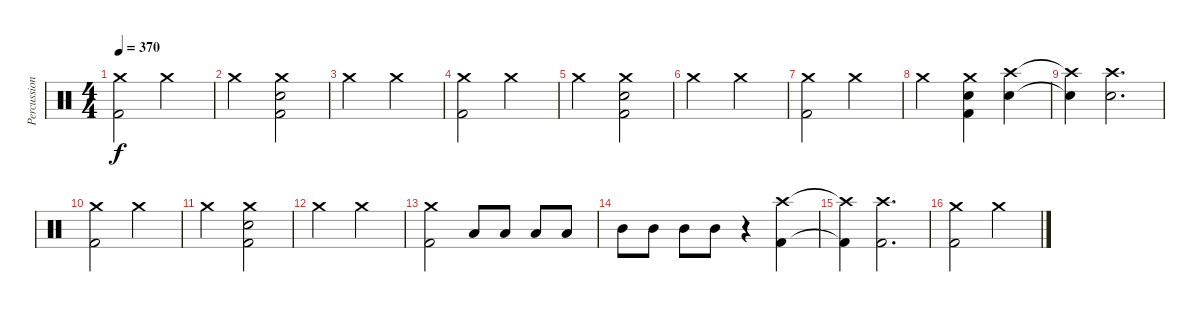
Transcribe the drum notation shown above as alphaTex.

\track ("Percussions" "Percussion") {instrument percussion}
\staff {score}
\articulation defaults
\ts (4 4)
\tempo 370
\clef neutral
\ks c
("Crash medium (hit)" "Kick (hit) 2").2{dy f} "Crash medium (hit)".2 |
"Crash medium (hit)".2 ("Crash medium (hit)" "Kick (hit) 2" "Snare (hit) 2").2 |
"Crash medium (hit)".2 "Crash medium (hit)".2 |
("Crash medium (hit)" "Kick (hit) 2").2 "Crash medium (hit)".2 |
"Crash medium (hit)".2 ("Crash medium (hit)" "Kick (hit) 2" "Snare (hit) 2").2 |
"Crash medium (hit)".2 "Crash medium (hit)".2 |
("Crash medium (hit)" "Kick (hit) 2").2 "Crash medium (hit)".2 |
"Crash medium (hit)".2 ("Crash medium (hit)" "Kick (hit) 2" "Snare (hit) 2").4 ("Crash high (hit)" "Snare (hit) 2").4 |
("Crash high (hit)"{t} "Snare (hit) 2"{t}).4 ("Crash high (hit)" "Snare (hit) 2").2{d} |
("Crash medium (hit)" "Kick (hit) 2").2 "Crash medium (hit)".2 |
"Crash medium (hit)".2 ("Crash medium (hit)" "Kick (hit) 2" "Snare (hit) 2").2 |
"Crash medium (hit)".2 "Crash medium (hit)".2 |
("Crash medium (hit)" "Kick (hit) 2").2 "Low Tom (hit)".8 "Low Tom (hit)".8 "Low Tom (hit)".8 "Low Tom (hit)".8 |
"Mid Tom (hit)".8 "Mid Tom (hit)".8 "Mid Tom (hit)".8 "Mid Tom (hit)".8 r.4 ("Crash high (hit)" "Kick (hit) 2").4 |
("Crash high (hit)"{t} "Kick (hit) 2"{t}).4 ("Crash high (hit)" "Kick (hit) 2").2{d} |
("Crash medium (hit)" "Kick (hit) 2").2 "Crash medium (hit)".2
